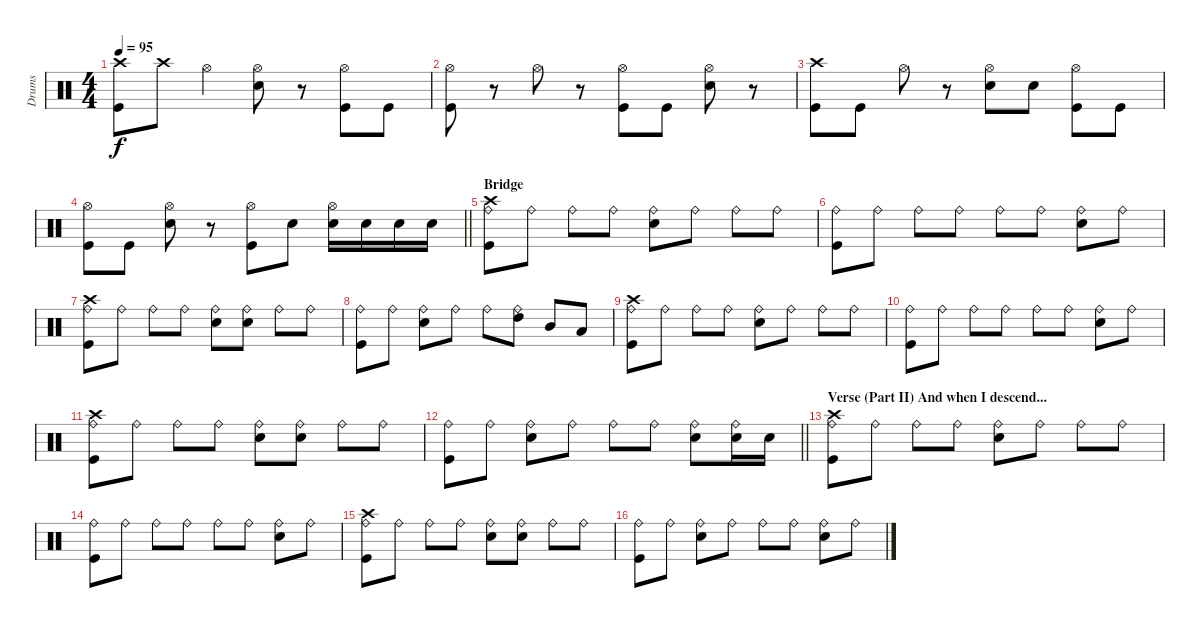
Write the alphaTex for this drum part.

\track ("Drums" "Drums") {instrument percussion}
\staff {score}
\articulation defaults
\ts (4 4)
\tempo 95
\clef neutral
\ks c
("Crash high (hit)" "Kick (hit)").8{dy f} "Crash high (hit)".8 "Hi-Hat (open)".4 ("Hi-Hat (open)" "Electric Snare (hit)").8 r.8 ("Hi-Hat (open)" "Kick (hit)").8 "Kick (hit)".8 |
("Hi-Hat (open)" "Kick (hit)").8 r.8 "Hi-Hat (open)".8 r.8 ("Hi-Hat (open)" "Kick (hit)").8 "Kick (hit)".8 ("Hi-Hat (open)" "Electric Snare (hit)").8 r.8 |
("Crash high (hit)" "Kick (hit)").8 "Kick (hit)".8 "Hi-Hat (open)".8 r.8 ("Hi-Hat (open)" "Electric Snare (hit)").8 "Electric Snare (hit)".8 ("Hi-Hat (open)" "Kick (hit)").8 "Kick (hit)".8 |
\barLineRight lightlight
("Hi-Hat (open)" "Kick (hit)").8 "Kick (hit)".8 ("Hi-Hat (open)" "Electric Snare (hit)").8 r.8 ("Hi-Hat (open)" "Kick (hit)").8 "Electric Snare (hit)".8 ("Hi-Hat (open)" "Electric Snare (hit)").16 "Electric Snare (hit)".16 "Electric Snare (hit)".16 "Electric Snare (hit)".16 |
\section ("" "Bridge ")
("Crash high (hit)" "Ride (bell)" "Kick (hit)").8 "Ride (bell)".8 "Ride (bell)".8 "Ride (bell)".8 ("Ride (bell)" "Electric Snare (hit)").8 "Ride (bell)".8 "Ride (bell)".8 "Ride (bell)".8 |
("Ride (bell)" "Kick (hit)").8 "Ride (bell)".8 "Ride (bell)".8 "Ride (bell)".8 "Ride (bell)".8 "Ride (bell)".8 ("Ride (bell)" "Electric Snare (hit)").8 "Ride (bell)".8 |
("Crash high (hit)" "Ride (bell)" "Kick (hit)").8 "Ride (bell)".8 "Ride (bell)".8 "Ride (bell)".8 ("Ride (bell)" "Electric Snare (hit)").8 ("Ride (bell)" "Electric Snare (hit)").8 "Ride (bell)".8 "Ride (bell)".8 |
("Ride (bell)" "Kick (hit)").8 "Ride (bell)".8 ("Ride (bell)" "Electric Snare (hit)").8 "Ride (bell)".8 "Ride (bell)".8 ("Ride (bell)" "High Tom (hit)").8 "Mid Tom (hit)".8 "Low Tom (hit)".8 |
("Crash high (hit)" "Ride (bell)" "Kick (hit)").8 "Ride (bell)".8 "Ride (bell)".8 "Ride (bell)".8 ("Ride (bell)" "Electric Snare (hit)").8 "Ride (bell)".8 "Ride (bell)".8 "Ride (bell)".8 |
("Ride (bell)" "Kick (hit)").8 "Ride (bell)".8 "Ride (bell)".8 "Ride (bell)".8 "Ride (bell)".8 "Ride (bell)".8 ("Ride (bell)" "Electric Snare (hit)").8 "Ride (bell)".8 |
("Crash high (hit)" "Ride (bell)" "Kick (hit)").8 "Ride (bell)".8 "Ride (bell)".8 "Ride (bell)".8 ("Ride (bell)" "Electric Snare (hit)").8 ("Ride (bell)" "Electric Snare (hit)").8 "Ride (bell)".8 "Ride (bell)".8 |
\barLineRight lightlight
("Ride (bell)" "Kick (hit)").8 "Ride (bell)".8 ("Ride (bell)" "Electric Snare (hit)").8 "Ride (bell)".8 "Ride (bell)".8 "Ride (bell)".8 ("Ride (bell)" "Electric Snare (hit)").8 ("Ride (bell)" "Electric Snare (hit)").16 "Electric Snare (hit)".16 |
\section ("" "Verse (Part II) And when I descend...")
("Crash high (hit)" "Ride (bell)" "Kick (hit)").8 "Ride (bell)".8 "Ride (bell)".8 "Ride (bell)".8 ("Ride (bell)" "Electric Snare (hit)").8 "Ride (bell)".8 "Ride (bell)".8 "Ride (bell)".8 |
("Ride (bell)" "Kick (hit)").8 "Ride (bell)".8 "Ride (bell)".8 "Ride (bell)".8 "Ride (bell)".8 "Ride (bell)".8 ("Ride (bell)" "Electric Snare (hit)").8 "Ride (bell)".8 |
("Crash high (hit)" "Ride (bell)" "Kick (hit)").8 "Ride (bell)".8 "Ride (bell)".8 "Ride (bell)".8 ("Ride (bell)" "Electric Snare (hit)").8 ("Ride (bell)" "Electric Snare (hit)").8 "Ride (bell)".8 "Ride (bell)".8 |
("Ride (bell)" "Kick (hit)").8 "Ride (bell)".8 ("Ride (bell)" "Electric Snare (hit)").8 "Ride (bell)".8 "Ride (bell)".8 "Ride (bell)".8 ("Ride (bell)" "Electric Snare (hit)").8 "Ride (bell)".8
